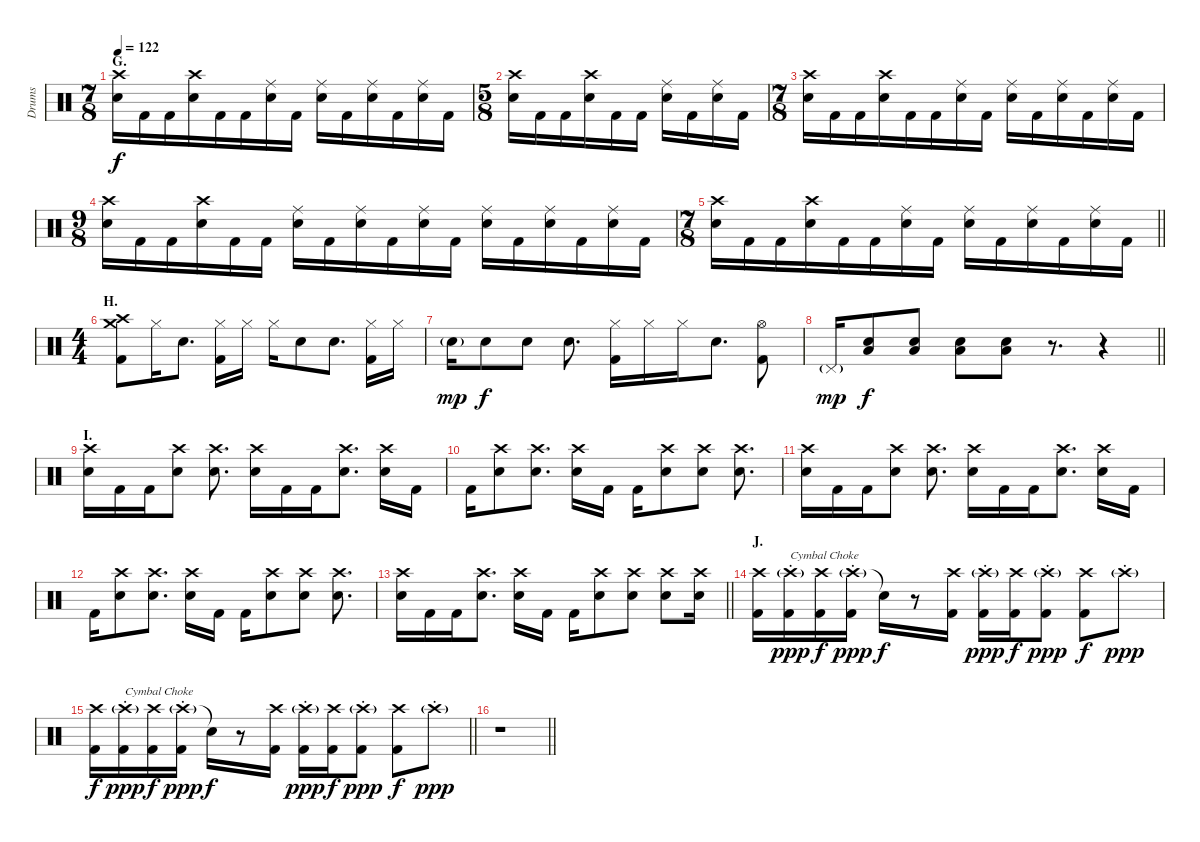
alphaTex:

\track ("Drums" "Drums") {instrument percussion}
\staff {score}
\articulation defaults
\ts (7 8)
\section ("" "G.")
\tempo 122
\clef neutral
\ks c
("Crash high (hit)" "Electric Snare (hit)").16{dy f} "Kick (hit) 2".16 "Kick (hit) 2".16 ("Crash high (hit)" "Electric Snare (hit)").16 "Kick (hit) 2".16 "Kick (hit) 2".16 ("Ride (middle)" "Electric Snare (hit)").16 "Kick (hit) 2".16 ("Ride (middle)" "Electric Snare (hit)").16 "Kick (hit) 2".16 ("Ride (middle)" "Electric Snare (hit)").16 "Kick (hit) 2".16 ("Ride (middle)" "Electric Snare (hit)").16 "Kick (hit) 2".16 |
\ts (5 8)
("Crash high (hit)" "Electric Snare (hit)").16 "Kick (hit) 2".16 "Kick (hit) 2".16 ("Crash high (hit)" "Electric Snare (hit)").16 "Kick (hit) 2".16 "Kick (hit) 2".16 ("Ride (middle)" "Electric Snare (hit)").16 "Kick (hit) 2".16 ("Ride (middle)" "Electric Snare (hit)").16 "Kick (hit) 2".16 |
\ts (7 8)
("Crash high (hit)" "Electric Snare (hit)").16 "Kick (hit) 2".16 "Kick (hit) 2".16 ("Crash high (hit)" "Electric Snare (hit)").16 "Kick (hit) 2".16 "Kick (hit) 2".16 ("Ride (middle)" "Electric Snare (hit)").16 "Kick (hit) 2".16 ("Ride (middle)" "Electric Snare (hit)").16 "Kick (hit) 2".16 ("Ride (middle)" "Electric Snare (hit)").16 "Kick (hit) 2".16 ("Ride (middle)" "Electric Snare (hit)").16 "Kick (hit) 2".16 |
\ts (9 8)
("Crash high (hit)" "Electric Snare (hit)").16 "Kick (hit) 2".16 "Kick (hit) 2".16 ("Crash high (hit)" "Electric Snare (hit)").16 "Kick (hit) 2".16 "Kick (hit) 2".16 ("Ride (middle)" "Electric Snare (hit)").16 "Kick (hit) 2".16 ("Ride (middle)" "Electric Snare (hit)").16 "Kick (hit) 2".16 ("Ride (middle)" "Electric Snare (hit)").16 "Kick (hit) 2".16 ("Ride (middle)" "Electric Snare (hit)").16 "Kick (hit) 2".16 ("Ride (middle)" "Electric Snare (hit)").16 "Kick (hit) 2".16 ("Ride (middle)" "Electric Snare (hit)").16 "Kick (hit) 2".16 |
\ts (7 8)
\barLineRight lightlight
("Crash high (hit)" "Electric Snare (hit)").16 "Kick (hit) 2".16 "Kick (hit) 2".16 ("Crash high (hit)" "Electric Snare (hit)").16 "Kick (hit) 2".16 "Kick (hit) 2".16 ("Ride (middle)" "Electric Snare (hit)").16 "Kick (hit) 2".16 ("Ride (middle)" "Electric Snare (hit)").16 "Kick (hit) 2".16 ("Ride (middle)" "Electric Snare (hit)").16 "Kick (hit) 2".16 ("Ride (middle)" "Electric Snare (hit)").16 "Kick (hit) 2".16 |
\ts (4 4)
\section ("" "H.")
("Crash medium (hit)" "Crash high (hit)" "Kick (hit) 2").8 "Hi-Hat (closed)".16 "Electric Snare (hit)".8{d} ("Hi-Hat (closed)" "Kick (hit) 2").16 "Hi-Hat (closed)".16 "Hi-Hat (closed)".16 "Electric Snare (hit)".8 "Electric Snare (hit)".8{d} ("Hi-Hat (closed)" "Kick (hit) 2").16 "Hi-Hat (closed)".16 |
"Electric Snare (hit)"{g}.16{dy mp} "Electric Snare (hit)".8{dy f} "Electric Snare (hit)".8 "Electric Snare (hit)".8{d} ("Hi-Hat (closed)" "Kick (hit) 2").16 "Hi-Hat (closed)".16 "Hi-Hat (closed)".16 "Electric Snare (hit)".8{d} ("Hi-Hat (open)" "Kick (hit) 2").8 |
\barLineRight lightlight "Pedal Hi-Hat (hit)"{g}.16{dy mp}
("Low Tom (hit)" "Electric Snare (hit)").8{bu 120 dy f} ("Low Tom (hit)" "Electric Snare (hit)").8{bu 120} ("Low Tom (hit)" "Electric Snare (hit)").8{bu 120} ("Low Tom (hit)" "Electric Snare (hit)").8{bu 120} r.8{d} r.4 |
\section ("" "I.")
("Crash high (hit)" "Electric Snare (hit)").16 "Kick (hit) 2".16 "Kick (hit) 2".16 ("Crash high (hit)" "Electric Snare (hit)").8 ("Crash high (hit)" "Electric Snare (hit)").8{d} ("Crash high (hit)" "Electric Snare (hit)").16 "Kick (hit) 2".16 "Kick (hit) 2".16 ("Crash high (hit)" "Electric Snare (hit)").8{d} ("Crash high (hit)" "Electric Snare (hit)").16 "Kick (hit) 2".16 |
"Kick (hit) 2".16 ("Crash high (hit)" "Electric Snare (hit)").8 ("Crash high (hit)" "Electric Snare (hit)").8{d} ("Crash high (hit)" "Electric Snare (hit)").16 "Kick (hit) 2".16 "Kick (hit) 2".16 ("Crash high (hit)" "Electric Snare (hit)").8 ("Crash high (hit)" "Electric Snare (hit)").8 ("Crash high (hit)" "Electric Snare (hit)").8{d} |
("Crash high (hit)" "Electric Snare (hit)").16 "Kick (hit) 2".16 "Kick (hit) 2".16 ("Crash high (hit)" "Electric Snare (hit)").8 ("Crash high (hit)" "Electric Snare (hit)").8{d} ("Crash high (hit)" "Electric Snare (hit)").16 "Kick (hit) 2".16 "Kick (hit) 2".16 ("Crash high (hit)" "Electric Snare (hit)").8{d} ("Crash high (hit)" "Electric Snare (hit)").16 "Kick (hit) 2".16 |
"Kick (hit) 2".16 ("Crash high (hit)" "Electric Snare (hit)").8 ("Crash high (hit)" "Electric Snare (hit)").8{d} ("Crash high (hit)" "Electric Snare (hit)").16 "Kick (hit) 2".16 "Kick (hit) 2".16 ("Crash high (hit)" "Electric Snare (hit)").8 ("Crash high (hit)" "Electric Snare (hit)").8 ("Crash high (hit)" "Electric Snare (hit)").8{d} |
\barLineRight lightlight
("Crash high (hit)" "Electric Snare (hit)").16 "Kick (hit) 2".16 "Kick (hit) 2".16 ("Crash high (hit)" "Electric Snare (hit)").8{d} ("Crash high (hit)" "Electric Snare (hit)").16 "Kick (hit) 2".16 "Kick (hit) 2".16 ("Crash high (hit)" "Electric Snare (hit)").8 ("Crash high (hit)" "Electric Snare (hit)").8 ("Crash high (hit)" "Electric Snare (hit)").8 ("Crash high (hit)" "Electric Snare (hit)").16 |
\section ("" "J.")
("Crash high (hit)" "Kick (hit) 2").16 ("Crash high (hit)"{g st} "Kick (hit) 2").16{txt "Cymbal Choke" dy ppp} ("Crash high (hit)" "Kick (hit) 2").16{dy f} ("Crash high (hit)"{g st} "Kick (hit) 2").16{dy ppp} "Snare (hit)"{t}.16{dy f} r.8 ("Crash high (hit)" "Kick (hit) 2").16 ("Crash high (hit)"{g st} "Kick (hit) 2").16{dy ppp} ("Crash high (hit)" "Kick (hit) 2").16{dy f} ("Crash high (hit)"{g st} "Kick (hit) 2").8{dy ppp} ("Crash high (hit)" "Kick (hit) 2").8{dy f} "Crash high (hit)"{g st}.8{dy ppp} |
\barLineRight lightlight
("Crash high (hit)" "Kick (hit) 2").16{dy f} ("Crash high (hit)"{g st} "Kick (hit) 2").16{txt "Cymbal Choke" dy ppp} ("Crash high (hit)" "Kick (hit) 2").16{dy f} ("Crash high (hit)"{g st} "Kick (hit) 2").16{dy ppp} "Snare (hit)"{t}.16{dy f} r.8 ("Crash high (hit)" "Kick (hit) 2").16 ("Crash high (hit)"{g st} "Kick (hit) 2").16{dy ppp} ("Crash high (hit)" "Kick (hit) 2").16{dy f} ("Crash high (hit)"{g st} "Kick (hit) 2").8{dy ppp} ("Crash high (hit)" "Kick (hit) 2").8{dy f} "Crash high (hit)"{g st}.8{dy ppp} |
\section ("" "")
\barLineRight lightlight
r.1
